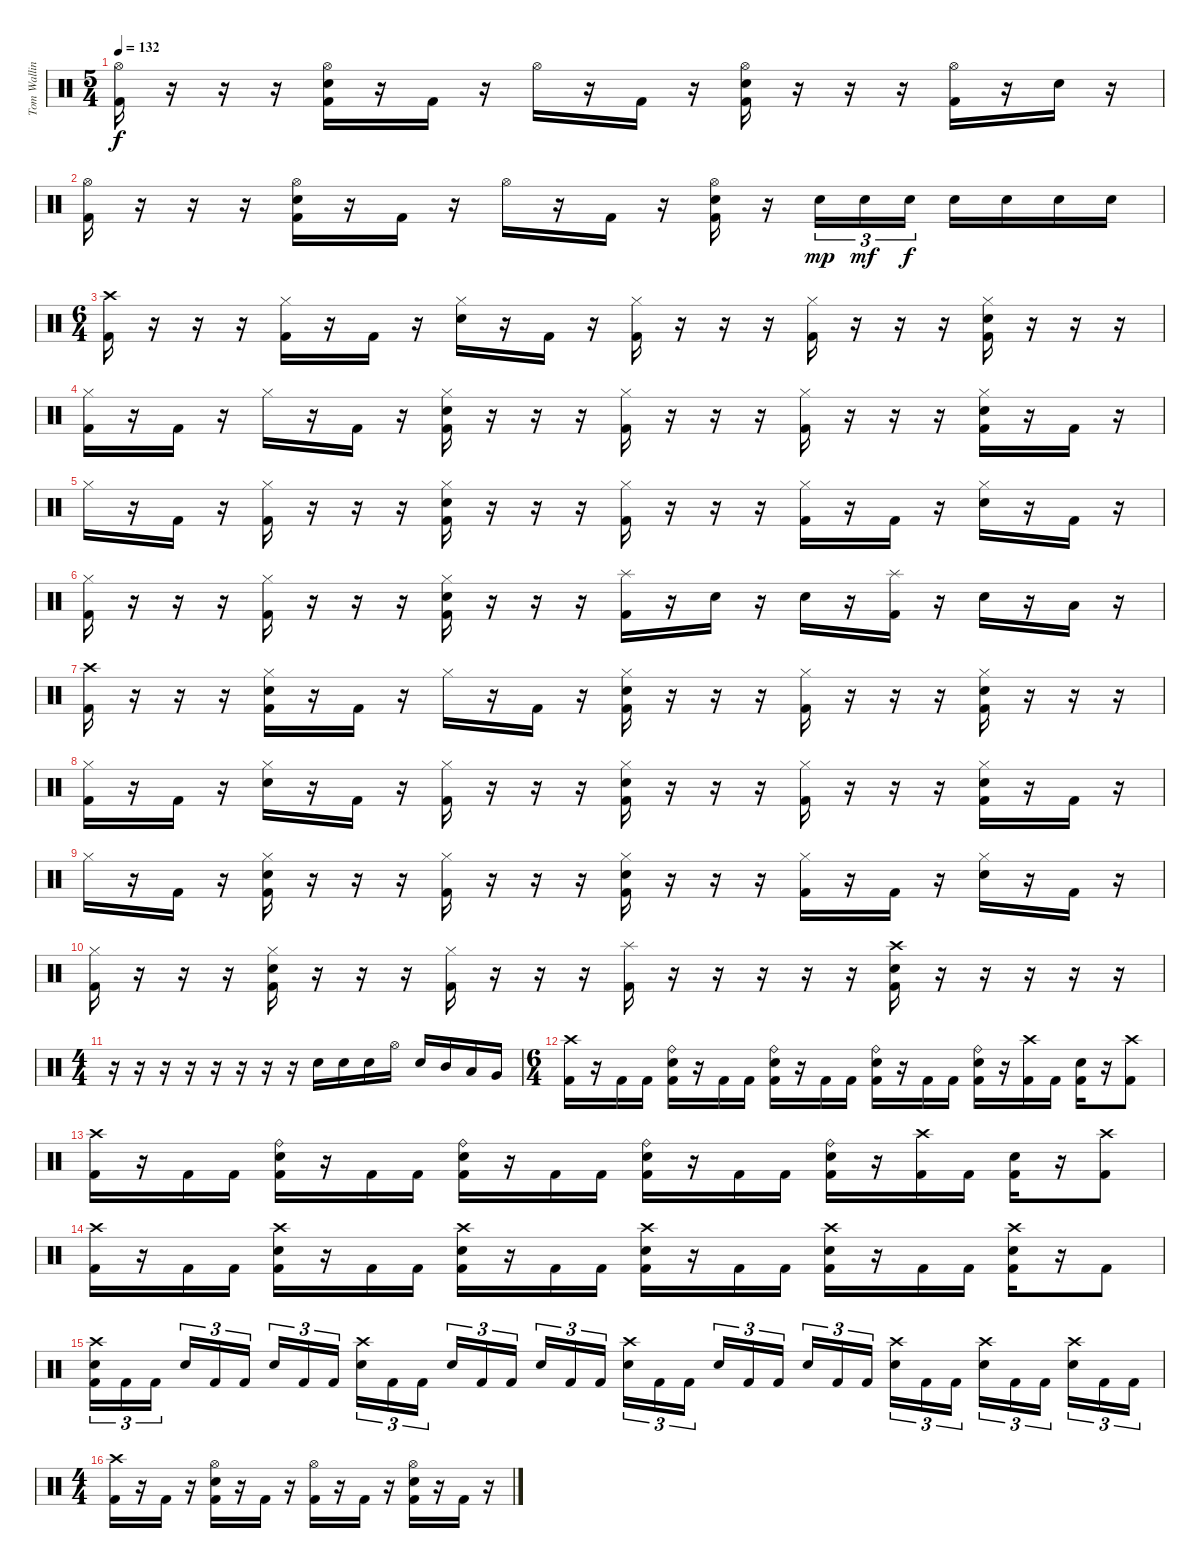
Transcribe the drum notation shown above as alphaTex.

\track ("Tom Walling [Drums]" "Tom Wallin") {instrument percussion}
\staff {score}
\articulation defaults
\ts (5 4)
\tempo 132
\clef neutral
\ks c
("Hi-Hat (open)" "Kick (hit) 2").16{dy f} r.16 r.16 r.16 ("Hi-Hat (open)" "Electric Snare (hit)" "Kick (hit) 2").16 r.16 "Kick (hit) 2".16 r.16 "Hi-Hat (open)".16 r.16 "Kick (hit) 2".16 r.16 ("Hi-Hat (open)" "Electric Snare (hit)" "Kick (hit) 2").16 r.16 r.16 r.16 ("Hi-Hat (open)" "Kick (hit) 2").16 r.16 "Electric Snare (hit)".16 r.16 |
("Hi-Hat (open)" "Kick (hit) 2").16 r.16 r.16 r.16 ("Hi-Hat (open)" "Electric Snare (hit)" "Kick (hit) 2").16 r.16 "Kick (hit) 2".16 r.16 "Hi-Hat (open)".16 r.16 "Kick (hit) 2".16 r.16 ("Hi-Hat (open)" "Electric Snare (hit)" "Kick (hit) 2").16 r.16 "Electric Snare (hit)".16{tu (3 2) dy mp} "Electric Snare (hit)".16{tu (3 2) dy mf} "Electric Snare (hit)".16{tu (3 2) dy f} "Electric Snare (hit)".16 "Electric Snare (hit)".16 "Electric Snare (hit)".16 "Electric Snare (hit)".16 |
\ts (6 4)
("Crash high (hit)" "Kick (hit) 2").16 r.16 r.16 r.16 ("Hi-Hat (closed)" "Kick (hit) 2").16 r.16 "Kick (hit) 2".16 r.16 ("Hi-Hat (closed)" "Electric Snare (hit)").16 r.16 "Kick (hit) 2".16 r.16 ("Hi-Hat (closed)" "Kick (hit) 2").16 r.16 r.16 r.16 ("Hi-Hat (closed)" "Kick (hit) 2").16 r.16 r.16 r.16 ("Hi-Hat (closed)" "Electric Snare (hit)" "Kick (hit) 2").16 r.16 r.16 r.16 |
("Hi-Hat (closed)" "Kick (hit) 2").16 r.16 "Kick (hit) 2".16 r.16 "Hi-Hat (closed)".16 r.16 "Kick (hit) 2".16 r.16 ("Hi-Hat (closed)" "Electric Snare (hit)" "Kick (hit) 2").16 r.16 r.16 r.16 ("Hi-Hat (closed)" "Kick (hit) 2").16 r.16 r.16 r.16 ("Hi-Hat (closed)" "Kick (hit) 2").16 r.16 r.16 r.16 ("Hi-Hat (closed)" "Electric Snare (hit)" "Kick (hit) 2").16 r.16 "Kick (hit) 2".16 r.16 |
"Hi-Hat (closed)".16 r.16 "Kick (hit) 2".16 r.16 ("Hi-Hat (closed)" "Kick (hit) 2").16 r.16 r.16 r.16 ("Hi-Hat (closed)" "Electric Snare (hit)" "Kick (hit) 2").16 r.16 r.16 r.16 ("Hi-Hat (closed)" "Kick (hit) 2").16 r.16 r.16 r.16 ("Hi-Hat (closed)" "Kick (hit) 2").16 r.16 "Kick (hit) 2".16 r.16 ("Hi-Hat (closed)" "Electric Snare (hit)").16 r.16 "Kick (hit) 2".16 r.16 |
("Hi-Hat (closed)" "Kick (hit) 2").16 r.16 r.16 r.16 ("Hi-Hat (closed)" "Kick (hit) 2").16 r.16 r.16 r.16 ("Hi-Hat (closed)" "Electric Snare (hit)" "Kick (hit) 2").16 r.16 r.16 r.16 ("Splash (hit)" "Kick (hit) 2").16 r.16 "Electric Snare (hit)".16 r.16 "Electric Snare (hit)".16 r.16 ("Splash (hit)" "Kick (hit) 2").16 r.16 "Electric Snare (hit)".16 r.16 "Low Tom (hit)".16 r.16 |
("Crash high (hit)" "Kick (hit) 2").16 r.16 r.16 r.16 ("Hi-Hat (closed)" "Electric Snare (hit)" "Kick (hit) 2").16 r.16 "Kick (hit) 2".16 r.16 "Hi-Hat (closed)".16 r.16 "Kick (hit) 2".16 r.16 ("Hi-Hat (closed)" "Electric Snare (hit)" "Kick (hit) 2").16 r.16 r.16 r.16 ("Hi-Hat (closed)" "Kick (hit) 2").16 r.16 r.16 r.16 ("Hi-Hat (closed)" "Electric Snare (hit)" "Kick (hit) 2").16 r.16 r.16 r.16 |
("Hi-Hat (closed)" "Kick (hit) 2").16 r.16 "Kick (hit) 2".16 r.16 ("Hi-Hat (closed)" "Electric Snare (hit)").16 r.16 "Kick (hit) 2".16 r.16 ("Hi-Hat (closed)" "Kick (hit) 2").16 r.16 r.16 r.16 ("Hi-Hat (closed)" "Electric Snare (hit)" "Kick (hit) 2").16 r.16 r.16 r.16 ("Hi-Hat (closed)" "Kick (hit) 2").16 r.16 r.16 r.16 ("Hi-Hat (closed)" "Electric Snare (hit)" "Kick (hit) 2").16 r.16 "Kick (hit) 2".16 r.16 |
"Hi-Hat (closed)".16 r.16 "Kick (hit) 2".16 r.16 ("Hi-Hat (closed)" "Electric Snare (hit)" "Kick (hit) 2").16 r.16 r.16 r.16 ("Hi-Hat (closed)" "Kick (hit) 2").16 r.16 r.16 r.16 ("Hi-Hat (closed)" "Electric Snare (hit)" "Kick (hit) 2").16 r.16 r.16 r.16 ("Hi-Hat (closed)" "Kick (hit) 2").16 r.16 "Kick (hit) 2".16 r.16 ("Hi-Hat (closed)" "Electric Snare (hit)").16 r.16 "Kick (hit) 2".16 r.16 |
("Hi-Hat (closed)" "Kick (hit) 2").16 r.16 r.16 r.16 ("Hi-Hat (closed)" "Electric Snare (hit)" "Kick (hit) 2").16 r.16 r.16 r.16 ("Hi-Hat (closed)" "Kick (hit) 2").16 r.16 r.16 r.16 ("Splash (hit)" "Kick (hit) 2").16 r.16 r.16 r.16 r.16 r.16 ("Crash high (hit)" "Electric Snare (hit)" "Kick (hit) 2").16 r.16 r.16 r.16 r.16 r.16 |
\ts (4 4)
r.16 r.16 r.16 r.16 r.16 r.16 r.16 r.16 "Electric Snare (hit)".16 "Electric Snare (hit)".16 "Electric Snare (hit)".16 "Hi-Hat (open)".16 "Electric Snare (hit)".16 "Mid Tom (hit)".16 "Low Tom (hit)".16 "Very Low Tom (hit)".16 |
\ts (6 4)
("Crash high (hit)" "Kick (hit) 2").16 r.16 "Kick (hit) 2".16 "Kick (hit) 2".16 ("Ride (bell)" "Electric Snare (hit)" "Kick (hit) 2").16 r.16 "Kick (hit) 2".16 "Kick (hit) 2".16 ("Ride (bell)" "Electric Snare (hit)" "Kick (hit) 2").16 r.16 "Kick (hit) 2".16 "Kick (hit) 2".16 ("Ride (bell)" "Electric Snare (hit)" "Kick (hit) 2").16 r.16 "Kick (hit) 2".16 "Kick (hit) 2".16 ("Ride (bell)" "Electric Snare (hit)" "Kick (hit) 2").16 r.16 ("Crash high (hit)" "Kick (hit) 2").16 "Kick (hit) 2".16 ("Electric Snare (hit)" "Kick (hit) 2").16 r.16 ("Crash high (hit)" "Kick (hit) 2").8 |
("Crash high (hit)" "Kick (hit) 2").16 r.16 "Kick (hit) 2".16 "Kick (hit) 2".16 ("Ride (bell)" "Electric Snare (hit)" "Kick (hit) 2").16 r.16 "Kick (hit) 2".16 "Kick (hit) 2".16 ("Ride (bell)" "Electric Snare (hit)" "Kick (hit) 2").16 r.16 "Kick (hit) 2".16 "Kick (hit) 2".16 ("Ride (bell)" "Electric Snare (hit)" "Kick (hit) 2").16 r.16 "Kick (hit) 2".16 "Kick (hit) 2".16 ("Ride (bell)" "Electric Snare (hit)" "Kick (hit) 2").16 r.16 ("Crash high (hit)" "Kick (hit) 2").16 "Kick (hit) 2".16 ("Electric Snare (hit)" "Kick (hit) 2").16 r.16 ("Crash high (hit)" "Kick (hit) 2").8 |
("Crash high (hit)" "Kick (hit) 2").16 r.16 "Kick (hit) 2".16 "Kick (hit) 2".16 ("Crash high (hit)" "Electric Snare (hit)" "Kick (hit) 2").16 r.16 "Kick (hit) 2".16 "Kick (hit) 2".16 ("Crash high (hit)" "Electric Snare (hit)" "Kick (hit) 2").16 r.16 "Kick (hit) 2".16 "Kick (hit) 2".16 ("Crash high (hit)" "Electric Snare (hit)" "Kick (hit) 2").16 r.16 "Kick (hit) 2".16 "Kick (hit) 2".16 ("Crash high (hit)" "Electric Snare (hit)" "Kick (hit) 2").16 r.16 "Kick (hit) 2".16 "Kick (hit) 2".16 ("Crash high (hit)" "Electric Snare (hit)" "Kick (hit) 2").16 r.16 "Kick (hit) 2".8 |
("Crash high (hit)" "Electric Snare (hit)" "Kick (hit) 2").16{tu (3 2)} "Kick (hit) 2".16{tu (3 2)} "Kick (hit) 2".16{tu (3 2)} "Electric Snare (hit)".16{tu (3 2)} "Kick (hit) 2".16{tu (3 2)} "Kick (hit) 2".16{tu (3 2)} "Electric Snare (hit)".16{tu (3 2)} "Kick (hit) 2".16{tu (3 2)} "Kick (hit) 2".16{tu (3 2)} ("Crash high (hit)" "Electric Snare (hit)").16{tu (3 2)} "Kick (hit) 2".16{tu (3 2)} "Kick (hit) 2".16{tu (3 2)} "Electric Snare (hit)".16{tu (3 2)} "Kick (hit) 2".16{tu (3 2)} "Kick (hit) 2".16{tu (3 2)} "Electric Snare (hit)".16{tu (3 2)} "Kick (hit) 2".16{tu (3 2)} "Kick (hit) 2".16{tu (3 2)} ("Crash high (hit)" "Electric Snare (hit)").16{tu (3 2)} "Kick (hit) 2".16{tu (3 2)} "Kick (hit) 2".16{tu (3 2)} "Electric Snare (hit)".16{tu (3 2)} "Kick (hit) 2".16{tu (3 2)} "Kick (hit) 2".16{tu (3 2)} "Electric Snare (hit)".16{tu (3 2)} "Kick (hit) 2".16{tu (3 2)} "Kick (hit) 2".16{tu (3 2)} ("Crash high (hit)" "Electric Snare (hit)").16{tu (3 2)} "Kick (hit) 2".16{tu (3 2)} "Kick (hit) 2".16{tu (3 2)} ("Crash high (hit)" "Electric Snare (hit)").16{tu (3 2)} "Kick (hit) 2".16{tu (3 2)} "Kick (hit) 2".16{tu (3 2)} ("Crash high (hit)" "Electric Snare (hit)").16{tu (3 2)} "Kick (hit) 2".16{tu (3 2)} "Kick (hit) 2".16{tu (3 2)} |
\ts (4 4)
("Crash high (hit)" "Kick (hit) 2").16 r.16 "Kick (hit) 2".16 r.16 ("Hi-Hat (open)" "Electric Snare (hit)" "Kick (hit) 2").16 r.16 "Kick (hit) 2".16 r.16 ("Hi-Hat (open)" "Kick (hit) 2").16 r.16 "Kick (hit) 2".16 r.16 ("Hi-Hat (open)" "Electric Snare (hit)" "Kick (hit) 2").16 r.16 "Kick (hit) 2".16 r.16
